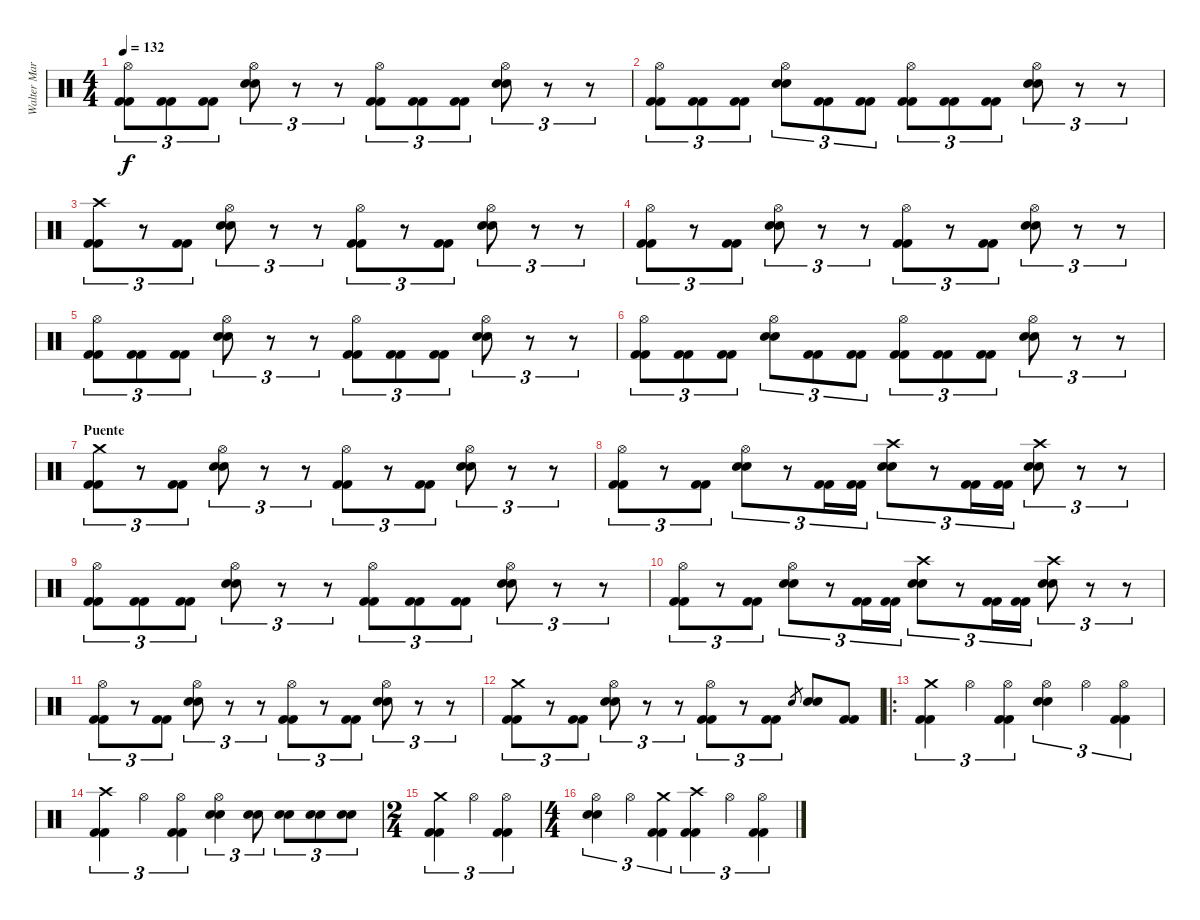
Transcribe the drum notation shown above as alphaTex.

\track ("Walter Martinez (bateria)" "Walter Mar") {instrument percussion}
\staff {score}
\articulation defaults
\ts (4 4)
\tempo 132
\clef neutral
\ks c
("Hi-Hat (open)" "Kick (hit) 2" "Kick (hit) 2").8{tu (3 2) dy f} ("Kick (hit) 2" "Kick (hit) 2").8{tu (3 2)} ("Kick (hit) 2" "Kick (hit) 2").8{tu (3 2)} ("Hi-Hat (open)" "Snare (hit) 2" "Snare (hit) 2").8{tu (3 2)} r.8{tu (3 2)} r.8{tu (3 2)} ("Hi-Hat (open)" "Kick (hit) 2" "Kick (hit) 2").8{tu (3 2)} ("Kick (hit) 2" "Kick (hit) 2").8{tu (3 2)} ("Kick (hit) 2" "Kick (hit) 2").8{tu (3 2)} ("Hi-Hat (open)" "Snare (hit) 2" "Snare (hit) 2").8{tu (3 2)} r.8{tu (3 2)} r.8{tu (3 2)} |
("Hi-Hat (open)" "Kick (hit) 2" "Kick (hit) 2").8{tu (3 2)} ("Kick (hit) 2" "Kick (hit) 2").8{tu (3 2)} ("Kick (hit) 2" "Kick (hit) 2").8{tu (3 2)} ("Hi-Hat (open)" "Snare (hit) 2" "Snare (hit) 2").8{tu (3 2)} ("Kick (hit) 2" "Kick (hit) 2").8{tu (3 2)} ("Kick (hit) 2" "Kick (hit) 2").8{tu (3 2)} ("Hi-Hat (open)" "Kick (hit) 2" "Kick (hit) 2").8{tu (3 2)} ("Kick (hit) 2" "Kick (hit) 2").8{tu (3 2)} ("Kick (hit) 2" "Kick (hit) 2").8{tu (3 2)} ("Hi-Hat (open)" "Snare (hit) 2" "Snare (hit) 2").8{tu (3 2)} r.8{tu (3 2)} r.8{tu (3 2)} |
("Crash high (hit)" "Kick (hit) 2" "Kick (hit) 2").8{tu (3 2)} r.8{tu (3 2)} ("Kick (hit) 2" "Kick (hit) 2").8{tu (3 2)} ("Hi-Hat (open)" "Snare (hit) 2" "Snare (hit) 2").8{tu (3 2)} r.8{tu (3 2)} r.8{tu (3 2)} ("Hi-Hat (open)" "Kick (hit) 2" "Kick (hit) 2").8{tu (3 2)} r.8{tu (3 2)} ("Kick (hit) 2" "Kick (hit) 2").8{tu (3 2)} ("Hi-Hat (open)" "Snare (hit) 2" "Snare (hit) 2").8{tu (3 2)} r.8{tu (3 2)} r.8{tu (3 2)} |
("Hi-Hat (open)" "Kick (hit) 2" "Kick (hit) 2").8{tu (3 2)} r.8{tu (3 2)} ("Kick (hit) 2" "Kick (hit) 2").8{tu (3 2)} ("Hi-Hat (open)" "Snare (hit) 2" "Snare (hit) 2").8{tu (3 2)} r.8{tu (3 2)} r.8{tu (3 2)} ("Hi-Hat (open)" "Kick (hit) 2" "Kick (hit) 2").8{tu (3 2)} r.8{tu (3 2)} ("Kick (hit) 2" "Kick (hit) 2").8{tu (3 2)} ("Hi-Hat (open)" "Snare (hit) 2" "Snare (hit) 2").8{tu (3 2)} r.8{tu (3 2)} r.8{tu (3 2)} |
("Hi-Hat (open)" "Kick (hit) 2" "Kick (hit) 2").8{tu (3 2)} ("Kick (hit) 2" "Kick (hit) 2").8{tu (3 2)} ("Kick (hit) 2" "Kick (hit) 2").8{tu (3 2)} ("Hi-Hat (open)" "Snare (hit) 2" "Snare (hit) 2").8{tu (3 2)} r.8{tu (3 2)} r.8{tu (3 2)} ("Hi-Hat (open)" "Kick (hit) 2" "Kick (hit) 2").8{tu (3 2)} ("Kick (hit) 2" "Kick (hit) 2").8{tu (3 2)} ("Kick (hit) 2" "Kick (hit) 2").8{tu (3 2)} ("Hi-Hat (open)" "Snare (hit) 2" "Snare (hit) 2").8{tu (3 2)} r.8{tu (3 2)} r.8{tu (3 2)} |
("Hi-Hat (open)" "Kick (hit) 2" "Kick (hit) 2").8{tu (3 2)} ("Kick (hit) 2" "Kick (hit) 2").8{tu (3 2)} ("Kick (hit) 2" "Kick (hit) 2").8{tu (3 2)} ("Hi-Hat (open)" "Snare (hit) 2" "Snare (hit) 2").8{tu (3 2)} ("Kick (hit) 2" "Kick (hit) 2").8{tu (3 2)} ("Kick (hit) 2" "Kick (hit) 2").8{tu (3 2)} ("Hi-Hat (open)" "Kick (hit) 2" "Kick (hit) 2").8{tu (3 2)} ("Kick (hit) 2" "Kick (hit) 2").8{tu (3 2)} ("Kick (hit) 2" "Kick (hit) 2").8{tu (3 2)} ("Hi-Hat (open)" "Snare (hit) 2" "Snare (hit) 2").8{tu (3 2)} r.8{tu (3 2)} r.8{tu (3 2)} |
\section ("" "Puente")
("Crash medium (hit)" "Kick (hit) 2" "Kick (hit) 2").8{tu (3 2)} r.8{tu (3 2)} ("Kick (hit) 2" "Kick (hit) 2").8{tu (3 2)} ("Hi-Hat (open)" "Snare (hit) 2" "Snare (hit) 2").8{tu (3 2)} r.8{tu (3 2)} r.8{tu (3 2)} ("Hi-Hat (open)" "Kick (hit) 2" "Kick (hit) 2").8{tu (3 2)} r.8{tu (3 2)} ("Kick (hit) 2" "Kick (hit) 2").8{tu (3 2)} ("Hi-Hat (open)" "Snare (hit) 2" "Snare (hit) 2").8{tu (3 2)} r.8{tu (3 2)} r.8{tu (3 2)} |
("Hi-Hat (open)" "Kick (hit) 2" "Kick (hit) 2").8{tu (3 2)} r.8{tu (3 2)} ("Kick (hit) 2" "Kick (hit) 2").8{tu (3 2)} ("Hi-Hat (open)" "Snare (hit) 2" "Snare (hit) 2").8{tu (3 2)} r.8{tu (3 2)} ("Kick (hit) 2" "Kick (hit) 2").16{tu (3 2)} ("Kick (hit) 2" "Kick (hit) 2").16{tu (3 2)} ("Crash high (hit)" "Snare (hit) 2" "Snare (hit) 2").8{tu (3 2)} r.8{tu (3 2)} ("Kick (hit) 2" "Kick (hit) 2").16{tu (3 2)} ("Kick (hit) 2" "Kick (hit) 2").16{tu (3 2)} ("Crash high (hit)" "Snare (hit) 2" "Snare (hit) 2").8{tu (3 2)} r.8{tu (3 2)} r.8{tu (3 2)} |
("Hi-Hat (open)" "Kick (hit) 2" "Kick (hit) 2").8{tu (3 2)} ("Kick (hit) 2" "Kick (hit) 2").8{tu (3 2)} ("Kick (hit) 2" "Kick (hit) 2").8{tu (3 2)} ("Hi-Hat (open)" "Snare (hit) 2" "Snare (hit) 2").8{tu (3 2)} r.8{tu (3 2)} r.8{tu (3 2)} ("Hi-Hat (open)" "Kick (hit) 2" "Kick (hit) 2").8{tu (3 2)} ("Kick (hit) 2" "Kick (hit) 2").8{tu (3 2)} ("Kick (hit) 2" "Kick (hit) 2").8{tu (3 2)} ("Hi-Hat (open)" "Snare (hit) 2" "Snare (hit) 2").8{tu (3 2)} r.8{tu (3 2)} r.8{tu (3 2)} |
("Hi-Hat (open)" "Kick (hit) 2" "Kick (hit) 2").8{tu (3 2)} r.8{tu (3 2)} ("Kick (hit) 2" "Kick (hit) 2").8{tu (3 2)} ("Hi-Hat (open)" "Snare (hit) 2" "Snare (hit) 2").8{tu (3 2)} r.8{tu (3 2)} ("Kick (hit) 2" "Kick (hit) 2").16{tu (3 2)} ("Kick (hit) 2" "Kick (hit) 2").16{tu (3 2)} ("Crash high (hit)" "Snare (hit) 2" "Snare (hit) 2").8{tu (3 2)} r.8{tu (3 2)} ("Kick (hit) 2" "Kick (hit) 2").16{tu (3 2)} ("Kick (hit) 2" "Kick (hit) 2").16{tu (3 2)} ("Crash high (hit)" "Snare (hit) 2" "Snare (hit) 2").8{tu (3 2)} r.8{tu (3 2)} r.8{tu (3 2)} |
("Hi-Hat (open)" "Kick (hit) 2" "Kick (hit) 2").8{tu (3 2)} r.8{tu (3 2)} ("Kick (hit) 2" "Kick (hit) 2").8{tu (3 2)} ("Hi-Hat (open)" "Snare (hit) 2" "Snare (hit) 2").8{tu (3 2)} r.8{tu (3 2)} r.8{tu (3 2)} ("Hi-Hat (open)" "Kick (hit) 2" "Kick (hit) 2").8{tu (3 2)} r.8{tu (3 2)} ("Kick (hit) 2" "Kick (hit) 2").8{tu (3 2)} ("Hi-Hat (open)" "Snare (hit) 2" "Snare (hit) 2").8{tu (3 2)} r.8{tu (3 2)} r.8{tu (3 2)} |
("Crash medium (hit)" "Kick (hit) 2" "Kick (hit) 2").8{tu (3 2)} r.8{tu (3 2)} ("Kick (hit) 2" "Kick (hit) 2").8{tu (3 2)} ("Hi-Hat (open)" "Snare (hit) 2" "Snare (hit) 2").8{tu (3 2)} r.8{tu (3 2)} r.8{tu (3 2)} ("Hi-Hat (open)" "Kick (hit) 2" "Kick (hit) 2").8{tu (3 2)} r.8{tu (3 2)} ("Kick (hit) 2" "Kick (hit) 2").8{tu (3 2)} "Snare (hit) 2".8{gr} ("Snare (hit) 2" "Snare (hit) 2").8 ("Kick (hit) 2" "Kick (hit) 2").8 |
\ro
("Crash medium (hit)" "Kick (hit) 2" "Kick (hit) 2").4{tu (3 2)} "Hi-Hat (open)".4{tu (3 2)} ("Hi-Hat (open)" "Kick (hit) 2" "Kick (hit) 2").4{tu (3 2)} ("Hi-Hat (open)" "Snare (hit) 2" "Snare (hit) 2").4{tu (3 2)} "Hi-Hat (open)".4{tu (3 2)} ("Hi-Hat (open)" "Kick (hit) 2" "Kick (hit) 2").4{tu (3 2)} |
("Crash high (hit)" "Kick (hit) 2" "Kick (hit) 2").4{tu (3 2)} "Hi-Hat (open)".4{tu (3 2)} ("Hi-Hat (open)" "Kick (hit) 2" "Kick (hit) 2").4{tu (3 2)} ("Hi-Hat (open)" "Snare (hit) 2" "Snare (hit) 2").4{tu (3 2)} ("Snare (hit) 2" "Snare (hit) 2").8{tu (3 2)} ("Snare (hit) 2" "Snare (hit) 2").8{tu (3 2)} ("Snare (hit) 2" "Snare (hit) 2").8{tu (3 2)} ("Snare (hit) 2" "Snare (hit) 2").8{tu (3 2)} |
\ts (2 4)
("Crash medium (hit)" "Kick (hit) 2" "Kick (hit) 2").4{tu (3 2)} "Hi-Hat (open)".4{tu (3 2)} ("Hi-Hat (open)" "Kick (hit) 2" "Kick (hit) 2").4{tu (3 2)} |
\ts (4 4)
("Hi-Hat (open)" "Snare (hit) 2" "Snare (hit) 2").4{tu (3 2)} "Hi-Hat (open)".4{tu (3 2)} ("Crash medium (hit)" "Kick (hit) 2" "Kick (hit) 2").4{tu (3 2)} ("Crash high (hit)" "Kick (hit) 2" "Kick (hit) 2").4{tu (3 2)} "Hi-Hat (open)".4{tu (3 2)} ("Hi-Hat (open)" "Kick (hit) 2" "Kick (hit) 2").4{tu (3 2)}
